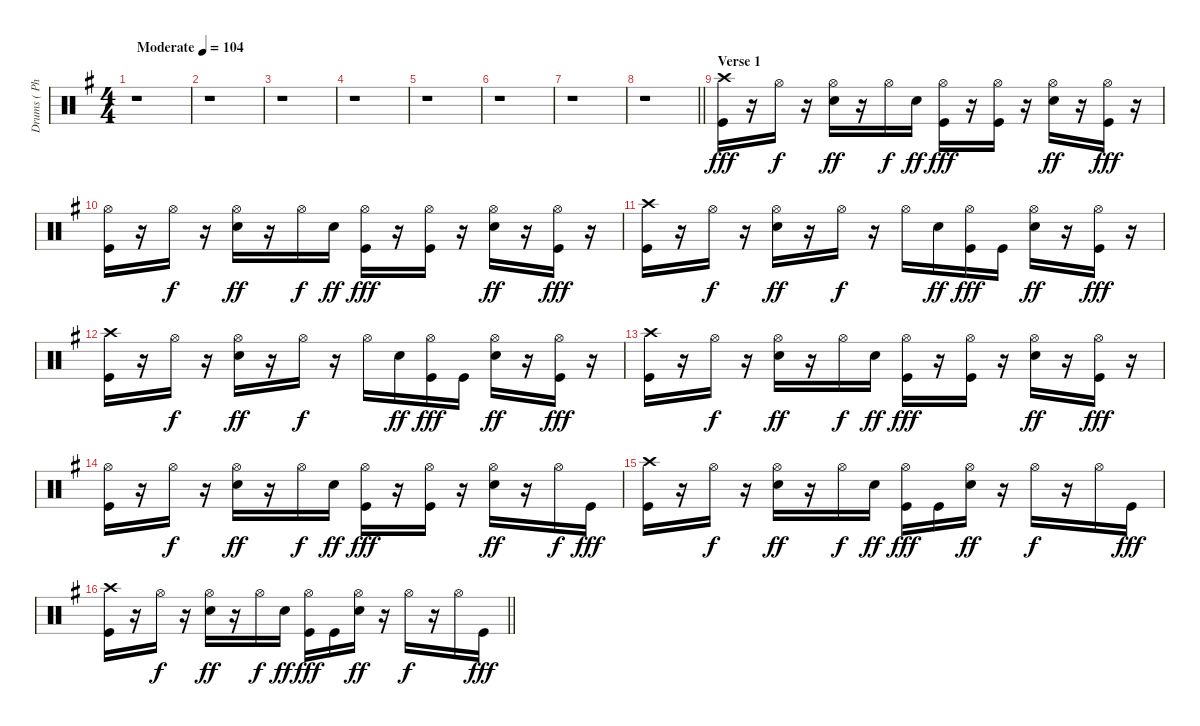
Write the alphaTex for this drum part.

\track ("Drums ( Phillip Selway )" "Drums ( Ph") {instrument percussion}
\staff {score}
\articulation defaults
\ts (4 4)
\tempo (104 "Moderate")
\clef neutral
\ks eminor
r.1{dy fff} |
r.1 |
r.1 |
r.1 |
r.1 |
r.1 |
r.1 |
\barLineRight lightlight
r.1 |
\section ("" "Verse 1")
("Crash high (hit)" "Kick (hit)").16 r.16 "Hi-Hat (open)".16{dy f} r.16 ("Hi-Hat (open)" "Electric Snare (hit)").16{dy ff} r.16 "Hi-Hat (open)".16{dy f} "Electric Snare (hit)".16{dy ff} ("Hi-Hat (open)" "Kick (hit)").16{dy fff} r.16 ("Hi-Hat (open)" "Kick (hit)").16 r.16 ("Hi-Hat (open)" "Electric Snare (hit)").16{dy ff} r.16 ("Hi-Hat (open)" "Kick (hit)").16{dy fff} r.16 |
("Hi-Hat (open)" "Kick (hit)").16 r.16 "Hi-Hat (open)".16{dy f} r.16 ("Hi-Hat (open)" "Electric Snare (hit)").16{dy ff} r.16 "Hi-Hat (open)".16{dy f} "Electric Snare (hit)".16{dy ff} ("Hi-Hat (open)" "Kick (hit)").16{dy fff} r.16 ("Hi-Hat (open)" "Kick (hit)").16 r.16 ("Hi-Hat (open)" "Electric Snare (hit)").16{dy ff} r.16 ("Hi-Hat (open)" "Kick (hit)").16{dy fff} r.16 |
("Crash high (hit)" "Kick (hit)").16 r.16 "Hi-Hat (open)".16{dy f} r.16 ("Hi-Hat (open)" "Electric Snare (hit)").16{dy ff} r.16 "Hi-Hat (open)".16{dy f} r.16 "Hi-Hat (open)".16 "Electric Snare (hit)".16{dy ff} ("Hi-Hat (open)" "Kick (hit)").16{dy fff} "Kick (hit)".16 ("Hi-Hat (open)" "Electric Snare (hit)").16{dy ff} r.16 ("Hi-Hat (open)" "Kick (hit)").16{dy fff} r.16 |
("Crash high (hit)" "Kick (hit)").16 r.16 "Hi-Hat (open)".16{dy f} r.16 ("Hi-Hat (open)" "Electric Snare (hit)").16{dy ff} r.16 "Hi-Hat (open)".16{dy f} r.16 "Hi-Hat (open)".16 "Electric Snare (hit)".16{dy ff} ("Hi-Hat (open)" "Kick (hit)").16{dy fff} "Kick (hit)".16 ("Hi-Hat (open)" "Electric Snare (hit)").16{dy ff} r.16 ("Hi-Hat (open)" "Kick (hit)").16{dy fff} r.16 |
("Crash high (hit)" "Kick (hit)").16 r.16 "Hi-Hat (open)".16{dy f} r.16 ("Hi-Hat (open)" "Electric Snare (hit)").16{dy ff} r.16 "Hi-Hat (open)".16{dy f} "Electric Snare (hit)".16{dy ff} ("Hi-Hat (open)" "Kick (hit)").16{dy fff} r.16 ("Hi-Hat (open)" "Kick (hit)").16 r.16 ("Hi-Hat (open)" "Electric Snare (hit)").16{dy ff} r.16 ("Hi-Hat (open)" "Kick (hit)").16{dy fff} r.16 |
("Hi-Hat (open)" "Kick (hit)").16 r.16 "Hi-Hat (open)".16{dy f} r.16 ("Hi-Hat (open)" "Electric Snare (hit)").16{dy ff} r.16 "Hi-Hat (open)".16{dy f} "Electric Snare (hit)".16{dy ff} ("Hi-Hat (open)" "Kick (hit)").16{dy fff} r.16 ("Hi-Hat (open)" "Kick (hit)").16 r.16 ("Hi-Hat (open)" "Electric Snare (hit)").16{dy ff} r.16 "Hi-Hat (open)".16{dy f} "Kick (hit)".16{dy fff} |
("Crash high (hit)" "Kick (hit)").16 r.16 "Hi-Hat (open)".16{dy f} r.16 ("Hi-Hat (open)" "Electric Snare (hit)").16{dy ff} r.16 "Hi-Hat (open)".16{dy f} "Electric Snare (hit)".16{dy ff} ("Hi-Hat (open)" "Kick (hit)").16{dy fff} "Kick (hit)".16 ("Hi-Hat (open)" "Electric Snare (hit)").16{dy ff} r.16 "Hi-Hat (open)".16{dy f} r.16 "Hi-Hat (open)".16 "Kick (hit)".16{dy fff} |
\barLineRight lightlight
("Crash high (hit)" "Kick (hit)").16 r.16 "Hi-Hat (open)".16{dy f} r.16 ("Hi-Hat (open)" "Electric Snare (hit)").16{dy ff} r.16 "Hi-Hat (open)".16{dy f} "Electric Snare (hit)".16{dy ff} ("Hi-Hat (open)" "Kick (hit)").16{dy fff} "Kick (hit)".16 ("Hi-Hat (open)" "Electric Snare (hit)").16{dy ff} r.16 "Hi-Hat (open)".16{dy f} r.16 "Hi-Hat (open)".16 "Kick (hit)".16{dy fff}
